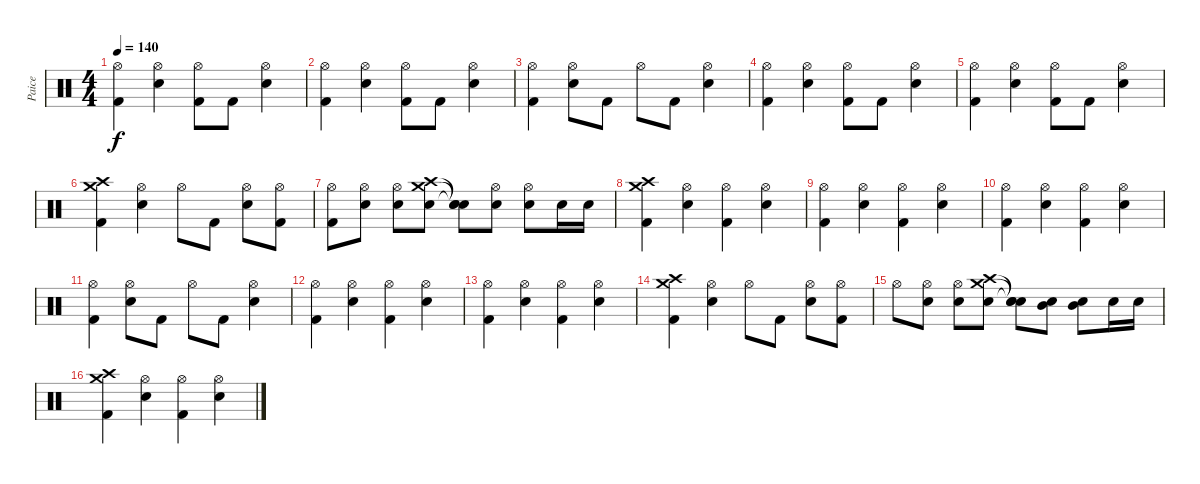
\track ("Paice" "Paice") {instrument percussion}
\staff {score}
\articulation defaults
\ts (4 4)
\tempo 140
\clef neutral
\ks c
("Hi-Hat (open)" "Kick (hit) 2").4{dy f} ("Hi-Hat (open)" "Electric Snare (hit)").4 ("Hi-Hat (open)" "Kick (hit) 2").8 "Kick (hit) 2".8 ("Hi-Hat (open)" "Electric Snare (hit)").4 |
("Hi-Hat (open)" "Kick (hit) 2").4 ("Hi-Hat (open)" "Electric Snare (hit)").4 ("Hi-Hat (open)" "Kick (hit) 2").8 "Kick (hit) 2".8 ("Hi-Hat (open)" "Electric Snare (hit)").4 |
("Hi-Hat (open)" "Kick (hit) 2").4 ("Hi-Hat (open)" "Electric Snare (hit)").8 "Kick (hit) 2".8 "Hi-Hat (open)".8 "Kick (hit) 2".8 ("Hi-Hat (open)" "Electric Snare (hit)").4 |
("Hi-Hat (open)" "Kick (hit) 2").4 ("Hi-Hat (open)" "Electric Snare (hit)").4 ("Hi-Hat (open)" "Kick (hit) 2").8 "Kick (hit) 2".8 ("Hi-Hat (open)" "Electric Snare (hit)").4 |
("Hi-Hat (open)" "Kick (hit) 2").4 ("Hi-Hat (open)" "Electric Snare (hit)").4 ("Hi-Hat (open)" "Kick (hit) 2").8 "Kick (hit) 2".8 ("Hi-Hat (open)" "Electric Snare (hit)").4 |
("Crash high (hit)" "Crash medium (hit)" "Kick (hit) 2").4 ("Hi-Hat (open)" "Electric Snare (hit)").4 "Hi-Hat (open)".8 "Kick (hit) 2".8 ("Hi-Hat (open)" "Electric Snare (hit)").8 ("Hi-Hat (open)" "Kick (hit) 2").8 |
("Hi-Hat (open)" "Kick (hit) 2").8 ("Hi-Hat (open)" "Electric Snare (hit)").8 ("Hi-Hat (open)" "Electric Snare (hit)").8 ("Crash high (hit)" "Crash medium (hit)" "Electric Snare (hit)").8 ("Snare (hit)"{t} "Snare (hit)"{t} "Snare (hit)"{t}).8 ("Hi-Hat (open)" "Electric Snare (hit)").8 ("Hi-Hat (open)" "Electric Snare (hit)").8 "Electric Snare (hit)".16 "Electric Snare (hit)".16 |
("Crash high (hit)" "Crash medium (hit)" "Kick (hit) 2").4 ("Hi-Hat (open)" "Electric Snare (hit)").4 ("Hi-Hat (open)" "Kick (hit) 2").4 ("Hi-Hat (open)" "Electric Snare (hit)").4 |
("Hi-Hat (open)" "Kick (hit) 2").4 ("Hi-Hat (open)" "Electric Snare (hit)").4 ("Hi-Hat (open)" "Kick (hit) 2").4 ("Hi-Hat (open)" "Electric Snare (hit)").4 |
("Hi-Hat (open)" "Kick (hit) 2").4 ("Hi-Hat (open)" "Electric Snare (hit)").4 ("Hi-Hat (open)" "Kick (hit) 2").4 ("Hi-Hat (open)" "Electric Snare (hit)").4 |
("Hi-Hat (open)" "Kick (hit) 2").4 ("Hi-Hat (open)" "Electric Snare (hit)").8 "Kick (hit) 2".8 "Hi-Hat (open)".8 "Kick (hit) 2".8 ("Hi-Hat (open)" "Electric Snare (hit)").4 |
("Hi-Hat (open)" "Kick (hit) 2").4 ("Hi-Hat (open)" "Electric Snare (hit)").4 ("Hi-Hat (open)" "Kick (hit) 2").4 ("Hi-Hat (open)" "Electric Snare (hit)").4 |
("Hi-Hat (open)" "Kick (hit) 2").4 ("Hi-Hat (open)" "Electric Snare (hit)").4 ("Hi-Hat (open)" "Kick (hit) 2").4 ("Hi-Hat (open)" "Electric Snare (hit)").4 |
("Crash high (hit)" "Crash medium (hit)" "Kick (hit) 2").4 ("Hi-Hat (open)" "Electric Snare (hit)").4 "Hi-Hat (open)".8 "Kick (hit) 2".8 ("Hi-Hat (open)" "Electric Snare (hit)").8 ("Hi-Hat (open)" "Kick (hit) 2").8 |
"Hi-Hat (open)".8 ("Hi-Hat (open)" "Electric Snare (hit)").8 ("Hi-Hat (open)" "Electric Snare (hit)").8 ("Crash high (hit)" "Crash medium (hit)" "Electric Snare (hit)").8 ("Snare (hit)"{t} "Snare (hit)"{t} "Snare (hit)"{t}).8 ("Electric Snare (hit)" "Mid Tom (hit)").8 ("Electric Snare (hit)" "Mid Tom (hit)").8 "Electric Snare (hit)".16 "Electric Snare (hit)".16 |
("Crash high (hit)" "Crash medium (hit)" "Kick (hit) 2").4 ("Hi-Hat (open)" "Electric Snare (hit)").4 ("Hi-Hat (open)" "Kick (hit) 2").4 ("Hi-Hat (open)" "Electric Snare (hit)").4
